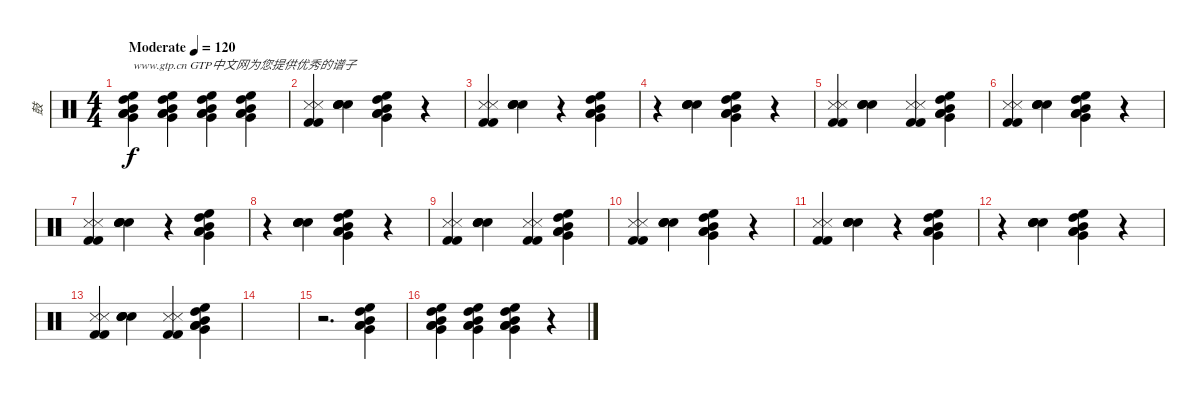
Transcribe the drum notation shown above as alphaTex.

\track ("鼓" "鼓") {instrument percussion}
\staff {score}
\articulation defaults
\ts (4 4)
\tempo (120 "Moderate")
\clef neutral
\ks c
("High Floor Tom (hit)" "High Tom (hit)" "Mid Tom (hit)" "Low Tom (hit)" "Very Low Tom (hit)" "Low Floor Tom (hit)").4{txt "www.gtp.cn GTP中文网为您提供优秀的谱子" dy f} ("High Floor Tom (hit)" "High Tom (hit)" "Mid Tom (hit)" "Low Tom (hit)" "Very Low Tom (hit)" "Low Floor Tom (hit)").4 ("High Floor Tom (hit)" "High Tom (hit)" "Mid Tom (hit)" "Low Tom (hit)" "Very Low Tom (hit)" "Low Floor Tom (hit)").4 ("High Floor Tom (hit)" "High Tom (hit)" "Mid Tom (hit)" "Low Tom (hit)" "Very Low Tom (hit)" "Low Floor Tom (hit)").4 |
("Snare (side stick) 3" "Kick (hit) 2" "Kick (hit) 2" "Snare (side stick) 3").4 ("Hand Clap (hit)" "Hand Clap (hit)" "Hand Clap (hit)" "Hand Clap (hit)").4 ("High Floor Tom (hit)" "High Tom (hit)" "Mid Tom (hit)" "Low Tom (hit)" "Very Low Tom (hit)" "Low Floor Tom (hit)").4 r.4 |
("Snare (side stick) 3" "Kick (hit) 2" "Kick (hit) 2" "Snare (side stick) 3").4 ("Hand Clap (hit)" "Hand Clap (hit)" "Hand Clap (hit)" "Hand Clap (hit)").4 r.4 ("High Floor Tom (hit)" "High Tom (hit)" "Mid Tom (hit)" "Low Tom (hit)" "Very Low Tom (hit)" "Low Floor Tom (hit)").4 |
r.4 ("Hand Clap (hit)" "Hand Clap (hit)" "Hand Clap (hit)" "Hand Clap (hit)").4 ("High Floor Tom (hit)" "High Tom (hit)" "Mid Tom (hit)" "Low Tom (hit)" "Very Low Tom (hit)" "Low Floor Tom (hit)").4 r.4 |
("Snare (side stick) 3" "Kick (hit) 2" "Kick (hit) 2" "Snare (side stick) 3").4 ("Hand Clap (hit)" "Hand Clap (hit)" "Hand Clap (hit)" "Hand Clap (hit)").4 ("Snare (side stick) 3" "Kick (hit) 2" "Kick (hit) 2" "Snare (side stick) 3").4 ("High Floor Tom (hit)" "High Tom (hit)" "Mid Tom (hit)" "Low Tom (hit)" "Very Low Tom (hit)" "Low Floor Tom (hit)").4 |
("Snare (side stick) 3" "Kick (hit) 2" "Kick (hit) 2" "Snare (side stick) 3").4 ("Hand Clap (hit)" "Hand Clap (hit)" "Hand Clap (hit)" "Hand Clap (hit)").4 ("High Floor Tom (hit)" "High Tom (hit)" "Mid Tom (hit)" "Low Tom (hit)" "Very Low Tom (hit)" "Low Floor Tom (hit)").4 r.4 |
("Snare (side stick) 3" "Kick (hit) 2" "Kick (hit) 2" "Snare (side stick) 3").4 ("Hand Clap (hit)" "Hand Clap (hit)" "Hand Clap (hit)" "Hand Clap (hit)").4 r.4 ("High Floor Tom (hit)" "High Tom (hit)" "Mid Tom (hit)" "Low Tom (hit)" "Very Low Tom (hit)" "Low Floor Tom (hit)").4 |
r.4 ("Hand Clap (hit)" "Hand Clap (hit)" "Hand Clap (hit)" "Hand Clap (hit)").4 ("High Floor Tom (hit)" "High Tom (hit)" "Mid Tom (hit)" "Low Tom (hit)" "Very Low Tom (hit)" "Low Floor Tom (hit)").4 r.4 |
("Snare (side stick) 3" "Kick (hit) 2" "Kick (hit) 2" "Snare (side stick) 3").4 ("Hand Clap (hit)" "Hand Clap (hit)" "Hand Clap (hit)" "Hand Clap (hit)").4 ("Snare (side stick) 3" "Kick (hit) 2" "Kick (hit) 2" "Snare (side stick) 3").4 ("High Floor Tom (hit)" "High Tom (hit)" "Mid Tom (hit)" "Low Tom (hit)" "Very Low Tom (hit)" "Low Floor Tom (hit)").4 |
("Snare (side stick) 3" "Kick (hit) 2" "Kick (hit) 2" "Snare (side stick) 3").4 ("Hand Clap (hit)" "Hand Clap (hit)" "Hand Clap (hit)" "Hand Clap (hit)").4 ("High Floor Tom (hit)" "High Tom (hit)" "Mid Tom (hit)" "Low Tom (hit)" "Very Low Tom (hit)" "Low Floor Tom (hit)").4 r.4 |
("Snare (side stick) 3" "Kick (hit) 2" "Kick (hit) 2" "Snare (side stick) 3").4 ("Hand Clap (hit)" "Hand Clap (hit)" "Hand Clap (hit)" "Hand Clap (hit)").4 r.4 ("High Floor Tom (hit)" "High Tom (hit)" "Mid Tom (hit)" "Low Tom (hit)" "Very Low Tom (hit)" "Low Floor Tom (hit)").4 |
r.4 ("Hand Clap (hit)" "Hand Clap (hit)" "Hand Clap (hit)" "Hand Clap (hit)").4 ("High Floor Tom (hit)" "High Tom (hit)" "Mid Tom (hit)" "Low Tom (hit)" "Very Low Tom (hit)" "Low Floor Tom (hit)").4 r.4 |
("Snare (side stick) 3" "Kick (hit) 2" "Kick (hit) 2" "Snare (side stick) 3").4 ("Hand Clap (hit)" "Hand Clap (hit)" "Hand Clap (hit)" "Hand Clap (hit)").4 ("Snare (side stick) 3" "Kick (hit) 2" "Kick (hit) 2" "Snare (side stick) 3").4 ("High Floor Tom (hit)" "High Tom (hit)" "Mid Tom (hit)" "Low Tom (hit)" "Very Low Tom (hit)" "Low Floor Tom (hit)").4 |
|
r.2{d} ("High Floor Tom (hit)" "High Tom (hit)" "Mid Tom (hit)" "Low Tom (hit)" "Very Low Tom (hit)" "Low Floor Tom (hit)").4 |
("High Floor Tom (hit)" "High Tom (hit)" "Mid Tom (hit)" "Low Tom (hit)" "Very Low Tom (hit)" "Low Floor Tom (hit)").4 ("High Floor Tom (hit)" "High Tom (hit)" "Mid Tom (hit)" "Low Tom (hit)" "Very Low Tom (hit)" "Low Floor Tom (hit)").4 ("High Floor Tom (hit)" "High Tom (hit)" "Mid Tom (hit)" "Low Tom (hit)" "Very Low Tom (hit)" "Low Floor Tom (hit)").4 r.4
